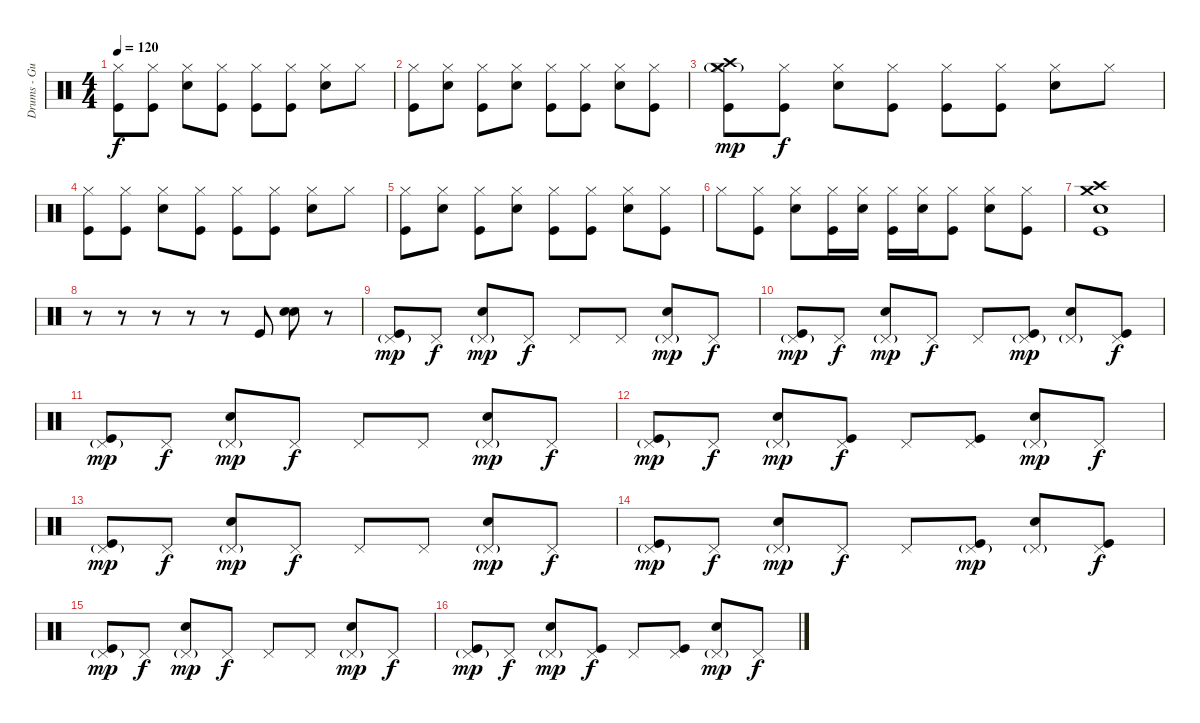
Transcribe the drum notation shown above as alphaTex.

\track ("Drums - Gustav" "Drums - Gu") {instrument percussion}
\staff {score}
\articulation defaults
\ts (4 4)
\tempo 120
\clef neutral
\ks c
("Kick (hit)" "Hi-Hat (closed)").8{dy f} ("Kick (hit)" "Hi-Hat (closed)").8 ("Hi-Hat (closed)" "Snare (hit) 2").8 ("Kick (hit)" "Hi-Hat (closed)").8 ("Kick (hit)" "Hi-Hat (closed)").8 ("Kick (hit)" "Hi-Hat (closed)").8 ("Hi-Hat (closed)" "Snare (hit) 2").8 "Hi-Hat (closed)".8 |
("Kick (hit)" "Hi-Hat (closed)").8 ("Hi-Hat (closed)" "Snare (hit) 2").8 ("Kick (hit)" "Hi-Hat (closed)").8 ("Hi-Hat (closed)" "Snare (hit) 2").8 ("Kick (hit)" "Hi-Hat (closed)").8 ("Kick (hit)" "Hi-Hat (closed)").8 ("Hi-Hat (closed)" "Snare (hit) 2").8 ("Kick (hit)" "Hi-Hat (closed)").8 |
("Kick (hit)" "Hi-Hat (closed)"{g} "Crash high (hit)" "Crash medium (hit)").8{dy mp} ("Kick (hit)" "Hi-Hat (closed)").8{dy f} ("Hi-Hat (closed)" "Snare (hit) 2").8 ("Kick (hit)" "Hi-Hat (closed)").8 ("Kick (hit)" "Hi-Hat (closed)").8 ("Kick (hit)" "Hi-Hat (closed)").8 ("Hi-Hat (closed)" "Snare (hit) 2").8 "Hi-Hat (closed)".8 |
("Kick (hit)" "Hi-Hat (closed)").8 ("Kick (hit)" "Hi-Hat (closed)").8 ("Hi-Hat (closed)" "Snare (hit) 2").8 ("Kick (hit)" "Hi-Hat (closed)").8 ("Kick (hit)" "Hi-Hat (closed)").8 ("Kick (hit)" "Hi-Hat (closed)").8 ("Hi-Hat (closed)" "Snare (hit) 2").8 "Hi-Hat (closed)".8 |
("Kick (hit)" "Hi-Hat (closed)").8 ("Hi-Hat (closed)" "Snare (hit) 2").8 ("Kick (hit)" "Hi-Hat (closed)").8 ("Hi-Hat (closed)" "Snare (hit) 2").8 ("Kick (hit)" "Hi-Hat (closed)").8 ("Kick (hit)" "Hi-Hat (closed)").8 ("Hi-Hat (closed)" "Snare (hit) 2").8 ("Kick (hit)" "Hi-Hat (closed)").8 |
"Hi-Hat (closed)".8 ("Kick (hit)" "Hi-Hat (closed)").8 ("Hi-Hat (closed)" "Snare (hit) 2").8 ("Kick (hit)" "Hi-Hat (closed)").16 ("Hi-Hat (closed)" "Snare (hit) 2").16 ("Kick (hit)" "Hi-Hat (closed)").16 ("Hi-Hat (closed)" "Snare (hit) 2").16 ("Kick (hit)" "Hi-Hat (closed)").8 ("Hi-Hat (closed)" "Snare (hit) 2").8 ("Kick (hit)" "Hi-Hat (closed)").8 |
("Kick (hit)" "Snare (hit)" "Crash high (hit)" "Crash medium (hit)").1 |
r.8 r.8 r.8 r.8 r.8 "Kick (hit)".8 ("Snare (hit) 2" "Snare (hit) 2").8 r.8 |
("Kick (hit)" "Pedal Hi-Hat (hit)"{g}).8{dy mp} "Pedal Hi-Hat (hit)".8{dy f} ("Pedal Hi-Hat (hit)"{g} "Snare (hit) 2").8{dy mp} "Pedal Hi-Hat (hit)".8{dy f} "Pedal Hi-Hat (hit)".8 "Pedal Hi-Hat (hit)".8 ("Pedal Hi-Hat (hit)"{g} "Snare (hit) 2").8{dy mp} "Pedal Hi-Hat (hit)".8{dy f} |
("Kick (hit)" "Pedal Hi-Hat (hit)"{g}).8{dy mp} "Pedal Hi-Hat (hit)".8{dy f} ("Pedal Hi-Hat (hit)"{g} "Snare (hit) 2").8{dy mp} "Pedal Hi-Hat (hit)".8{dy f} "Pedal Hi-Hat (hit)".8 ("Kick (hit)" "Pedal Hi-Hat (hit)"{g}).8{dy mp} ("Pedal Hi-Hat (hit)"{g} "Snare (hit) 2").8 ("Kick (hit)" "Pedal Hi-Hat (hit)").8{dy f} |
("Kick (hit)" "Pedal Hi-Hat (hit)"{g}).8{dy mp} "Pedal Hi-Hat (hit)".8{dy f} ("Pedal Hi-Hat (hit)"{g} "Snare (hit) 2").8{dy mp} "Pedal Hi-Hat (hit)".8{dy f} "Pedal Hi-Hat (hit)".8 "Pedal Hi-Hat (hit)".8 ("Pedal Hi-Hat (hit)"{g} "Snare (hit) 2").8{dy mp} "Pedal Hi-Hat (hit)".8{dy f} |
("Kick (hit)" "Pedal Hi-Hat (hit)"{g}).8{dy mp} "Pedal Hi-Hat (hit)".8{dy f} ("Pedal Hi-Hat (hit)"{g} "Snare (hit) 2").8{dy mp} ("Kick (hit)" "Pedal Hi-Hat (hit)").8{dy f} "Pedal Hi-Hat (hit)".8 ("Kick (hit)" "Pedal Hi-Hat (hit)").8 ("Pedal Hi-Hat (hit)"{g} "Snare (hit) 2").8{dy mp} "Pedal Hi-Hat (hit)".8{dy f} |
("Kick (hit)" "Pedal Hi-Hat (hit)"{g}).8{dy mp} "Pedal Hi-Hat (hit)".8{dy f} ("Pedal Hi-Hat (hit)"{g} "Snare (hit) 2").8{dy mp} "Pedal Hi-Hat (hit)".8{dy f} "Pedal Hi-Hat (hit)".8 "Pedal Hi-Hat (hit)".8 ("Pedal Hi-Hat (hit)"{g} "Snare (hit) 2").8{dy mp} "Pedal Hi-Hat (hit)".8{dy f} |
("Kick (hit)" "Pedal Hi-Hat (hit)"{g}).8{dy mp} "Pedal Hi-Hat (hit)".8{dy f} ("Pedal Hi-Hat (hit)"{g} "Snare (hit) 2").8{dy mp} "Pedal Hi-Hat (hit)".8{dy f} "Pedal Hi-Hat (hit)".8 ("Kick (hit)" "Pedal Hi-Hat (hit)"{g}).8{dy mp} ("Pedal Hi-Hat (hit)"{g} "Snare (hit) 2").8 ("Kick (hit)" "Pedal Hi-Hat (hit)").8{dy f} |
("Kick (hit)" "Pedal Hi-Hat (hit)"{g}).8{dy mp} "Pedal Hi-Hat (hit)".8{dy f} ("Pedal Hi-Hat (hit)"{g} "Snare (hit) 2").8{dy mp} "Pedal Hi-Hat (hit)".8{dy f} "Pedal Hi-Hat (hit)".8 "Pedal Hi-Hat (hit)".8 ("Pedal Hi-Hat (hit)"{g} "Snare (hit) 2").8{dy mp} "Pedal Hi-Hat (hit)".8{dy f} |
("Kick (hit)" "Pedal Hi-Hat (hit)"{g}).8{dy mp} "Pedal Hi-Hat (hit)".8{dy f} ("Pedal Hi-Hat (hit)"{g} "Snare (hit) 2").8{dy mp} ("Kick (hit)" "Pedal Hi-Hat (hit)").8{dy f} "Pedal Hi-Hat (hit)".8 ("Kick (hit)" "Pedal Hi-Hat (hit)").8 ("Pedal Hi-Hat (hit)"{g} "Snare (hit) 2").8{dy mp} "Pedal Hi-Hat (hit)".8{dy f}
